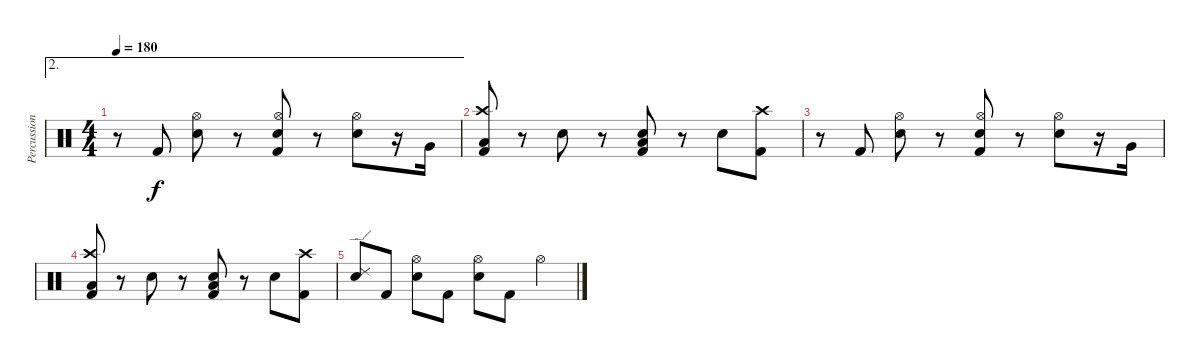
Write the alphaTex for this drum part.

\track ("Percussion" "Percussion") {instrument percussion}
\staff {score}
\articulation defaults
\ae 2
\ts (4 4)
\tempo 180
\clef neutral
\ks c
r.8{dy f} "Kick (hit) 2".8 ("Hi-Hat (open)" "Electric Snare (hit)").8 r.8 ("Hi-Hat (open)" "Electric Snare (hit)" "Kick (hit) 2").8 r.8 ("Hi-Hat (open)" "Electric Snare (hit)").8 r.16 "Very Low Tom (hit)".16 |
("Crash high (hit)" "Low Floor Tom (hit)" "Kick (hit) 2").8 r.8 "Electric Snare (hit)".8 r.8 ("Electric Snare (hit)" "Low Floor Tom (hit)" "Kick (hit) 2").8 r.8 "Electric Snare (hit)".8 ("Crash high (hit)" "Kick (hit) 2").8 |
r.8 "Kick (hit) 2".8 ("Hi-Hat (open)" "Electric Snare (hit)").8 r.8 ("Hi-Hat (open)" "Electric Snare (hit)" "Kick (hit) 2").8 r.8 ("Hi-Hat (open)" "Electric Snare (hit)").8 r.16 "Very Low Tom (hit)".16 |
("Crash high (hit)" "Low Floor Tom (hit)" "Kick (hit) 2").8 r.8 "Electric Snare (hit)".8 r.8 ("Electric Snare (hit)" "Low Floor Tom (hit)" "Kick (hit) 2").8 r.8 "Electric Snare (hit)".8 ("Crash high (hit)" "Kick (hit) 2").8 |
("Ride (edge) 2" "Electric Snare (hit)").8 "Kick (hit) 2".8 ("Hi-Hat (open)" "Electric Snare (hit)").8 "Kick (hit) 2".8 ("Hi-Hat (open)" "Electric Snare (hit)").8 "Kick (hit) 2".8 "Hi-Hat (open)".4
